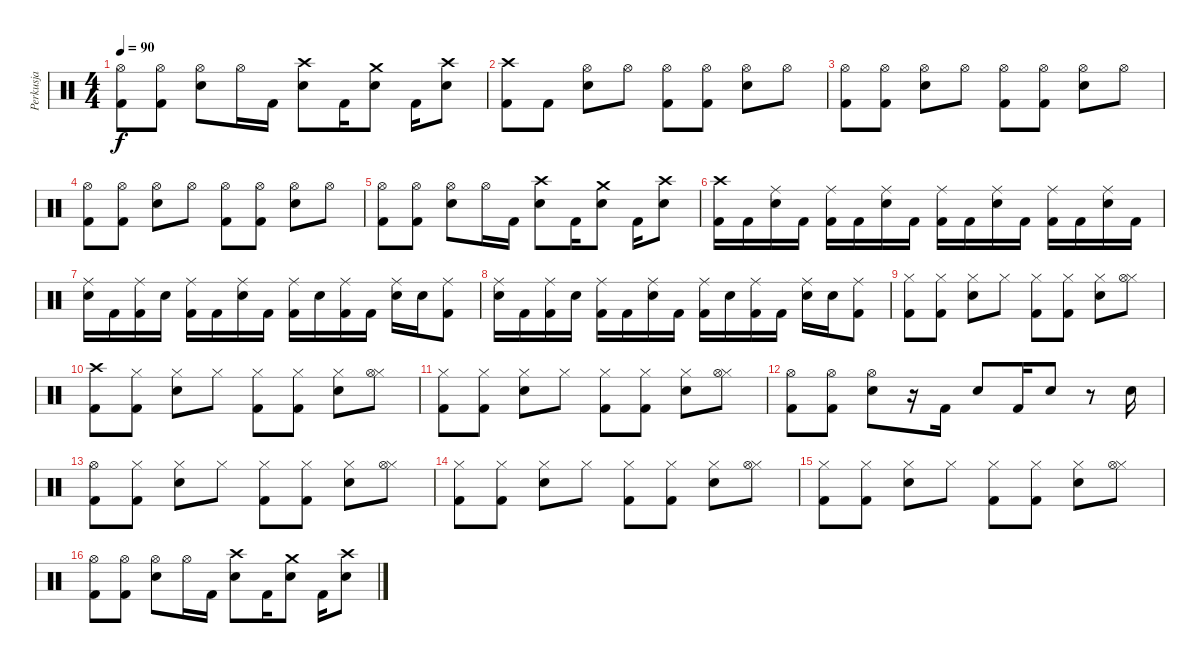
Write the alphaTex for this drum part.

\track ("Perkusja" "Perkusja") {instrument percussion}
\staff {score}
\articulation defaults
\ts (4 4)
\tempo 90
\clef neutral
\ks c
("Hi-Hat (open)" "Kick (hit) 2").8{dy f} ("Hi-Hat (open)" "Kick (hit) 2").8 ("Hi-Hat (open)" "Electric Snare (hit)").8 "Hi-Hat (open)".16 "Kick (hit) 2".16 ("Crash high (hit)" "Electric Snare (hit)").8 "Kick (hit) 2".16 ("Crash medium (hit)" "Electric Snare (hit)").8 "Kick (hit) 2".16 ("Crash high (hit)" "Electric Snare (hit)").8 |
("Crash high (hit)" "Kick (hit) 2").8 "Kick (hit) 2".8 ("Hi-Hat (open)" "Electric Snare (hit)").8 "Hi-Hat (open)".8 ("Hi-Hat (open)" "Kick (hit) 2").8 ("Hi-Hat (open)" "Kick (hit) 2").8 ("Hi-Hat (open)" "Electric Snare (hit)").8 "Hi-Hat (open)".8 |
("Hi-Hat (open)" "Kick (hit) 2").8 ("Hi-Hat (open)" "Kick (hit) 2").8 ("Hi-Hat (open)" "Electric Snare (hit)").8 "Hi-Hat (open)".8 ("Hi-Hat (open)" "Kick (hit) 2").8 ("Hi-Hat (open)" "Kick (hit) 2").8 ("Hi-Hat (open)" "Electric Snare (hit)").8 "Hi-Hat (open)".8 |
("Hi-Hat (open)" "Kick (hit) 2").8 ("Hi-Hat (open)" "Kick (hit) 2").8 ("Hi-Hat (open)" "Electric Snare (hit)").8 "Hi-Hat (open)".8 ("Hi-Hat (open)" "Kick (hit) 2").8 ("Hi-Hat (open)" "Kick (hit) 2").8 ("Hi-Hat (open)" "Electric Snare (hit)").8 "Hi-Hat (open)".8 |
("Hi-Hat (open)" "Kick (hit) 2").8 ("Hi-Hat (open)" "Kick (hit) 2").8 ("Hi-Hat (open)" "Electric Snare (hit)").8 "Hi-Hat (open)".16 "Kick (hit) 2".16 ("Crash high (hit)" "Electric Snare (hit)").8 "Kick (hit) 2".16 ("Crash medium (hit)" "Electric Snare (hit)").8 "Kick (hit) 2".16 ("Crash high (hit)" "Electric Snare (hit)").8 |
("Crash high (hit)" "Kick (hit) 2").16 "Kick (hit) 2".16 ("Ride (middle)" "Electric Snare (hit)").16 "Kick (hit) 2".16 ("Ride (middle)" "Kick (hit) 2").16 "Kick (hit) 2".16 ("Ride (middle)" "Electric Snare (hit)").16 "Kick (hit) 2".16 ("Ride (middle)" "Kick (hit) 2").16 "Kick (hit) 2".16 ("Ride (middle)" "Electric Snare (hit)").16 "Kick (hit) 2".16 ("Ride (middle)" "Kick (hit) 2").16 "Kick (hit) 2".16 ("Ride (middle)" "Electric Snare (hit)").16 "Kick (hit) 2".16 |
("Ride (middle)" "Electric Snare (hit)").16 "Kick (hit) 2".16 ("Ride (middle)" "Kick (hit) 2").16 "Electric Snare (hit)".16 ("Ride (middle)" "Kick (hit) 2").16 "Kick (hit) 2".16 ("Ride (middle)" "Electric Snare (hit)").16 "Kick (hit) 2".16 ("Ride (middle)" "Kick (hit) 2").16 "Electric Snare (hit)".16 ("Ride (middle)" "Kick (hit) 2").16 "Kick (hit) 2".16 ("Ride (middle)" "Electric Snare (hit)").16 "Electric Snare (hit)".16 ("Ride (middle)" "Kick (hit) 2").8 |
("Ride (middle)" "Electric Snare (hit)").16 "Kick (hit) 2".16 ("Ride (middle)" "Kick (hit) 2").16 "Electric Snare (hit)".16 ("Ride (middle)" "Kick (hit) 2").16 "Kick (hit) 2".16 ("Ride (middle)" "Electric Snare (hit)").16 "Kick (hit) 2".16 ("Ride (middle)" "Kick (hit) 2").16 "Electric Snare (hit)".16 ("Ride (middle)" "Kick (hit) 2").16 "Kick (hit) 2".16 ("Ride (middle)" "Electric Snare (hit)").16 "Electric Snare (hit)".16 ("Ride (middle)" "Kick (hit) 2").8 |
("Hi-Hat (closed)" "Kick (hit) 2").8 ("Hi-Hat (closed)" "Kick (hit) 2").8 ("Hi-Hat (closed)" "Electric Snare (hit)").8 "Hi-Hat (closed)".8 ("Hi-Hat (closed)" "Kick (hit) 2").8 ("Hi-Hat (closed)" "Kick (hit) 2").8 ("Hi-Hat (closed)" "Electric Snare (hit)").8 ("Hi-Hat (closed)" "Hi-Hat (open)").8 |
("Crash high (hit)" "Kick (hit) 2").8 ("Hi-Hat (closed)" "Kick (hit) 2").8 ("Hi-Hat (closed)" "Electric Snare (hit)").8 "Hi-Hat (closed)".8 ("Hi-Hat (closed)" "Kick (hit) 2").8 ("Hi-Hat (closed)" "Kick (hit) 2").8 ("Hi-Hat (closed)" "Electric Snare (hit)").8 ("Hi-Hat (closed)" "Hi-Hat (open)").8 |
("Hi-Hat (closed)" "Kick (hit) 2").8 ("Hi-Hat (closed)" "Kick (hit) 2").8 ("Hi-Hat (closed)" "Electric Snare (hit)").8 "Hi-Hat (closed)".8 ("Hi-Hat (closed)" "Kick (hit) 2").8 ("Hi-Hat (closed)" "Kick (hit) 2").8 ("Hi-Hat (closed)" "Electric Snare (hit)").8 ("Hi-Hat (closed)" "Hi-Hat (open)").8 |
("Hi-Hat (open)" "Kick (hit) 2").8 ("Hi-Hat (open)" "Kick (hit) 2").8 ("Hi-Hat (open)" "Electric Snare (hit)").8 r.16 "Kick (hit) 2".16 "Electric Snare (hit)".8 "Kick (hit) 2".16 "Electric Snare (hit)".8 r.8 "Electric Snare (hit)".16 |
("Hi-Hat (open)" "Kick (hit) 2").8 ("Hi-Hat (closed)" "Kick (hit) 2").8 ("Hi-Hat (closed)" "Electric Snare (hit)").8 "Hi-Hat (closed)".8 ("Hi-Hat (closed)" "Kick (hit) 2").8 ("Hi-Hat (closed)" "Kick (hit) 2").8 ("Hi-Hat (closed)" "Electric Snare (hit)").8 ("Hi-Hat (closed)" "Hi-Hat (open)").8 |
("Hi-Hat (closed)" "Kick (hit) 2").8 ("Hi-Hat (closed)" "Kick (hit) 2").8 ("Hi-Hat (closed)" "Electric Snare (hit)").8 "Hi-Hat (closed)".8 ("Hi-Hat (closed)" "Kick (hit) 2").8 ("Hi-Hat (closed)" "Kick (hit) 2").8 ("Hi-Hat (closed)" "Electric Snare (hit)").8 ("Hi-Hat (closed)" "Hi-Hat (open)").8 |
("Hi-Hat (closed)" "Kick (hit) 2").8 ("Hi-Hat (closed)" "Kick (hit) 2").8 ("Hi-Hat (closed)" "Electric Snare (hit)").8 "Hi-Hat (closed)".8 ("Hi-Hat (closed)" "Kick (hit) 2").8 ("Hi-Hat (closed)" "Kick (hit) 2").8 ("Hi-Hat (closed)" "Electric Snare (hit)").8 ("Hi-Hat (closed)" "Hi-Hat (open)").8 |
("Hi-Hat (open)" "Kick (hit) 2").8 ("Hi-Hat (open)" "Kick (hit) 2").8 ("Hi-Hat (open)" "Electric Snare (hit)").8 "Hi-Hat (open)".16 "Kick (hit) 2".16 ("Crash high (hit)" "Electric Snare (hit)").8 "Kick (hit) 2".16 ("Crash medium (hit)" "Electric Snare (hit)").8 "Kick (hit) 2".16 ("Crash high (hit)" "Electric Snare (hit)").8
